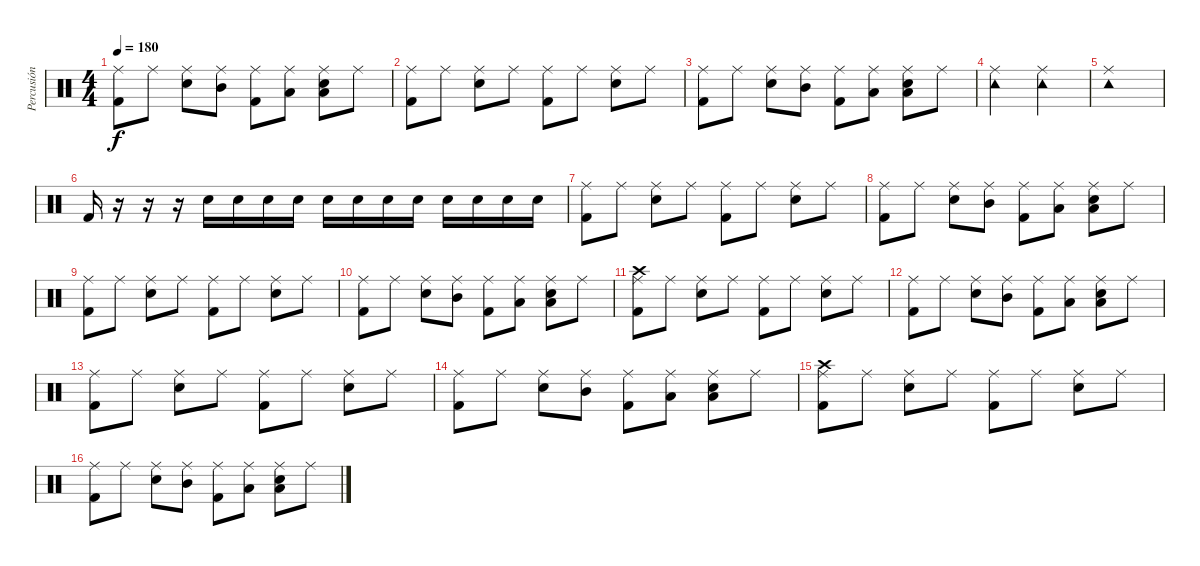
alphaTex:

\track ("Percusión" "Percusión") {instrument percussion}
\staff {score}
\articulation defaults
\ts (4 4)
\tempo 180
\clef neutral
\ks c
("Kick (hit) 2" "Ride (middle)").8{dy f} "Ride (middle)".8 ("Electric Snare (hit)" "Ride (middle)").8 ("Ride (middle)" "Mid Tom (hit)").8 ("Kick (hit) 2" "Ride (middle)").8 ("Ride (middle)" "Low Tom (hit)").8 ("Electric Snare (hit)" "Ride (middle)" "Low Floor Tom (hit)").8 "Ride (middle)".8 |
("Kick (hit) 2" "Ride (middle)").8 "Ride (middle)".8 ("Electric Snare (hit)" "Ride (middle)").8 "Ride (middle)".8 ("Kick (hit) 2" "Ride (middle)").8 "Ride (middle)".8 ("Electric Snare (hit)" "Ride (middle)").8 "Ride (middle)".8 |
("Kick (hit) 2" "Ride (middle)").8 "Ride (middle)".8 ("Electric Snare (hit)" "Ride (middle)").8 ("Ride (middle)" "Mid Tom (hit)").8 ("Kick (hit) 2" "Ride (middle)").8 ("Ride (middle)" "Low Tom (hit)").8 ("Electric Snare (hit)" "Ride (middle)" "Low Floor Tom (hit)").8 "Ride (middle)".8 |
("Tambourine (hit)" "Ride (middle)").2 ("Tambourine (hit)" "Ride (middle)").2 |
("Tambourine (hit)" "Ride (middle)").1 |
"Kick (hit) 2".16 r.16 r.16 r.16 "Electric Snare (hit)".16 "Electric Snare (hit)".16 "Electric Snare (hit)".16 "Electric Snare (hit)".16 "Electric Snare (hit)".16 "Electric Snare (hit)".16 "Electric Snare (hit)".16 "Electric Snare (hit)".16 "Electric Snare (hit)".16 "Electric Snare (hit)".16 "Electric Snare (hit)".16 "Electric Snare (hit)".16 |
("Kick (hit) 2" "Ride (middle)").8 "Ride (middle)".8 ("Electric Snare (hit)" "Ride (middle)").8 "Ride (middle)".8 ("Kick (hit) 2" "Ride (middle)").8 "Ride (middle)".8 ("Electric Snare (hit)" "Ride (middle)").8 "Ride (middle)".8 |
("Kick (hit) 2" "Ride (middle)").8 "Ride (middle)".8 ("Electric Snare (hit)" "Ride (middle)").8 ("Ride (middle)" "Mid Tom (hit)").8 ("Kick (hit) 2" "Ride (middle)").8 ("Ride (middle)" "Low Tom (hit)").8 ("Electric Snare (hit)" "Ride (middle)" "Low Floor Tom (hit)").8 "Ride (middle)".8 |
("Kick (hit) 2" "Ride (middle)").8 "Ride (middle)".8 ("Electric Snare (hit)" "Ride (middle)").8 "Ride (middle)".8 ("Kick (hit) 2" "Ride (middle)").8 "Ride (middle)".8 ("Electric Snare (hit)" "Ride (middle)").8 "Ride (middle)".8 |
("Kick (hit) 2" "Ride (middle)").8 "Ride (middle)".8 ("Electric Snare (hit)" "Ride (middle)").8 ("Ride (middle)" "Mid Tom (hit)").8 ("Kick (hit) 2" "Ride (middle)").8 ("Ride (middle)" "Low Tom (hit)").8 ("Electric Snare (hit)" "Ride (middle)" "Low Floor Tom (hit)").8 "Ride (middle)".8 |
("Kick (hit) 2" "Ride (middle)" "Crash high (hit)").8 "Ride (middle)".8 ("Electric Snare (hit)" "Ride (middle)").8 "Ride (middle)".8 ("Kick (hit) 2" "Ride (middle)").8 "Ride (middle)".8 ("Electric Snare (hit)" "Ride (middle)").8 "Ride (middle)".8 |
("Kick (hit) 2" "Ride (middle)").8 "Ride (middle)".8 ("Electric Snare (hit)" "Ride (middle)").8 ("Ride (middle)" "Mid Tom (hit)").8 ("Kick (hit) 2" "Ride (middle)").8 ("Ride (middle)" "Low Tom (hit)").8 ("Electric Snare (hit)" "Ride (middle)" "Low Floor Tom (hit)").8 "Ride (middle)".8 |
("Kick (hit) 2" "Ride (middle)").8 "Ride (middle)".8 ("Electric Snare (hit)" "Ride (middle)").8 "Ride (middle)".8 ("Kick (hit) 2" "Ride (middle)").8 "Ride (middle)".8 ("Electric Snare (hit)" "Ride (middle)").8 "Ride (middle)".8 |
("Kick (hit) 2" "Ride (middle)").8 "Ride (middle)".8 ("Electric Snare (hit)" "Ride (middle)").8 ("Ride (middle)" "Mid Tom (hit)").8 ("Kick (hit) 2" "Ride (middle)").8 ("Ride (middle)" "Low Tom (hit)").8 ("Electric Snare (hit)" "Ride (middle)" "Low Floor Tom (hit)").8 "Ride (middle)".8 |
("Kick (hit) 2" "Ride (middle)" "Crash high (hit)").8 "Ride (middle)".8 ("Electric Snare (hit)" "Ride (middle)").8 "Ride (middle)".8 ("Kick (hit) 2" "Ride (middle)").8 "Ride (middle)".8 ("Electric Snare (hit)" "Ride (middle)").8 "Ride (middle)".8 |
("Kick (hit) 2" "Ride (middle)").8 "Ride (middle)".8 ("Electric Snare (hit)" "Ride (middle)").8 ("Ride (middle)" "Mid Tom (hit)").8 ("Kick (hit) 2" "Ride (middle)").8 ("Ride (middle)" "Low Tom (hit)").8 ("Electric Snare (hit)" "Ride (middle)" "Low Floor Tom (hit)").8 "Ride (middle)".8
